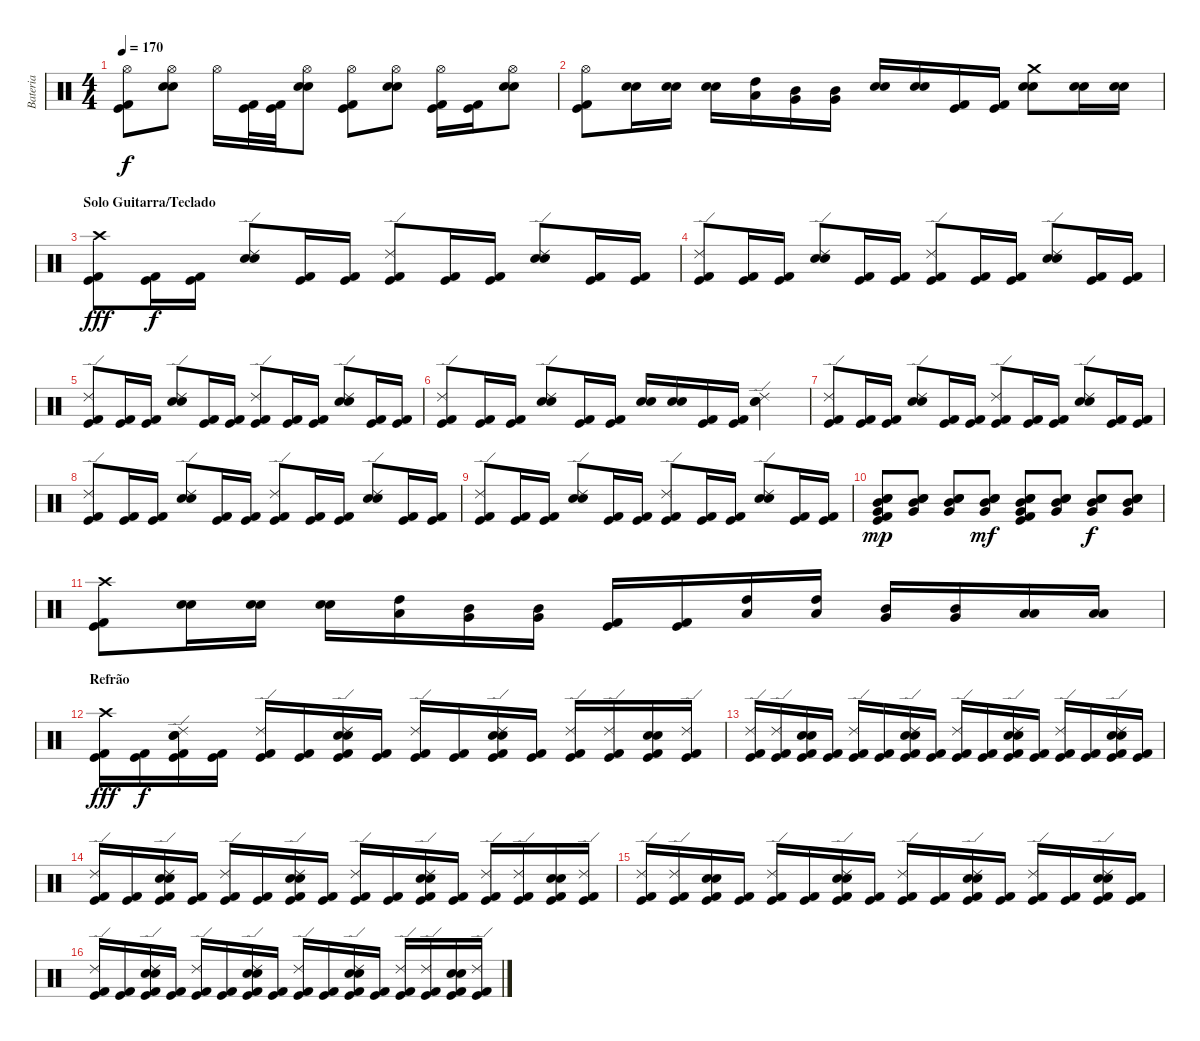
\track ("Bateria" "Bateria") {instrument percussion}
\staff {score}
\articulation defaults
\ts (4 4)
\tempo 170
\clef neutral
\ks c
("Hi-Hat (open)" "Kick (hit) 2" "Kick (hit)").8{dy f} ("Hi-Hat (open)" "Electric Snare (hit)" "Snare (hit) 2").8 "Hi-Hat (open)".16 ("Kick (hit) 2" "Kick (hit)").32 ("Kick (hit) 2" "Kick (hit)").32 ("Hi-Hat (open)" "Electric Snare (hit)" "Snare (hit) 2").8 ("Hi-Hat (open)" "Kick (hit) 2" "Kick (hit)").8 ("Hi-Hat (open)" "Electric Snare (hit)" "Snare (hit) 2").8 ("Hi-Hat (open)" "Kick (hit) 2" "Kick (hit)").16 ("Kick (hit) 2" "Kick (hit)").16 ("Hi-Hat (open)" "Electric Snare (hit)" "Snare (hit) 2").8 |
("Hi-Hat (open)" "Kick (hit) 2" "Kick (hit)").8 ("Electric Snare (hit)" "Snare (hit) 2").16 ("Electric Snare (hit)" "Snare (hit) 2").16 ("Electric Snare (hit)" "Snare (hit) 2").16 ("High Tom (hit)" "Low Tom (hit)").16 ("Mid Tom (hit)" "Very Low Tom (hit)").16 ("Mid Tom (hit)" "Very Low Tom (hit)").16 ("Electric Snare (hit)" "Snare (hit) 2").16 ("Electric Snare (hit)" "Snare (hit) 2").16 ("Kick (hit) 2" "Kick (hit)").16 ("Kick (hit) 2" "Kick (hit)").16 ("Crash medium (hit)" "Electric Snare (hit)" "Snare (hit) 2").8 ("Electric Snare (hit)" "Snare (hit) 2").16 ("Electric Snare (hit)" "Snare (hit) 2").16 |
\section ("" "Solo Guitarra/Teclado")
("Crash high (hit)" "Kick (hit) 2" "Kick (hit)").8{dy fff} ("Kick (hit) 2" "Kick (hit)").16{dy f} ("Kick (hit) 2" "Kick (hit)").16 ("Ride (edge) 2" "Electric Snare (hit)" "Snare (hit) 2").8 ("Kick (hit) 2" "Kick (hit)").16 ("Kick (hit) 2" "Kick (hit)").16 ("Ride (edge) 2" "Kick (hit) 2" "Kick (hit)").8 ("Kick (hit) 2" "Kick (hit)").16 ("Kick (hit) 2" "Kick (hit)").16 ("Ride (edge) 2" "Electric Snare (hit)" "Snare (hit) 2").8 ("Kick (hit) 2" "Kick (hit)").16 ("Kick (hit) 2" "Kick (hit)").16 |
("Ride (edge) 2" "Kick (hit) 2" "Kick (hit)").8 ("Kick (hit) 2" "Kick (hit)").16 ("Kick (hit) 2" "Kick (hit)").16 ("Ride (edge) 2" "Electric Snare (hit)" "Snare (hit) 2").8 ("Kick (hit) 2" "Kick (hit)").16 ("Kick (hit) 2" "Kick (hit)").16 ("Ride (edge) 2" "Kick (hit) 2" "Kick (hit)").8 ("Kick (hit) 2" "Kick (hit)").16 ("Kick (hit) 2" "Kick (hit)").16 ("Ride (edge) 2" "Electric Snare (hit)" "Snare (hit) 2").8 ("Kick (hit) 2" "Kick (hit)").16 ("Kick (hit) 2" "Kick (hit)").16 |
("Ride (edge) 2" "Kick (hit) 2" "Kick (hit)").8 ("Kick (hit) 2" "Kick (hit)").16 ("Kick (hit) 2" "Kick (hit)").16 ("Ride (edge) 2" "Electric Snare (hit)" "Snare (hit) 2").8 ("Kick (hit) 2" "Kick (hit)").16 ("Kick (hit) 2" "Kick (hit)").16 ("Ride (edge) 2" "Kick (hit) 2" "Kick (hit)").8 ("Kick (hit) 2" "Kick (hit)").16 ("Kick (hit) 2" "Kick (hit)").16 ("Ride (edge) 2" "Electric Snare (hit)" "Snare (hit) 2").8 ("Kick (hit) 2" "Kick (hit)").16 ("Kick (hit) 2" "Kick (hit)").16 |
("Ride (edge) 2" "Kick (hit) 2" "Kick (hit)").8 ("Kick (hit) 2" "Kick (hit)").16 ("Kick (hit) 2" "Kick (hit)").16 ("Ride (edge) 2" "Electric Snare (hit)" "Snare (hit) 2").8 ("Kick (hit) 2" "Kick (hit)").16 ("Kick (hit) 2" "Kick (hit)").16 ("Electric Snare (hit)" "Snare (hit) 2").16 ("Electric Snare (hit)" "Snare (hit) 2").16 ("Kick (hit) 2" "Kick (hit)").16 ("Kick (hit) 2" "Kick (hit)").16 ("Ride (edge) 2" "Electric Snare (hit)" "Snare (hit) 2").4 |
("Ride (edge) 2" "Kick (hit) 2" "Kick (hit)").8 ("Kick (hit) 2" "Kick (hit)").16 ("Kick (hit) 2" "Kick (hit)").16 ("Ride (edge) 2" "Electric Snare (hit)" "Snare (hit) 2").8 ("Kick (hit) 2" "Kick (hit)").16 ("Kick (hit) 2" "Kick (hit)").16 ("Ride (edge) 2" "Kick (hit) 2" "Kick (hit)").8 ("Kick (hit) 2" "Kick (hit)").16 ("Kick (hit) 2" "Kick (hit)").16 ("Ride (edge) 2" "Electric Snare (hit)" "Snare (hit) 2").8 ("Kick (hit) 2" "Kick (hit)").16 ("Kick (hit) 2" "Kick (hit)").16 |
("Ride (edge) 2" "Kick (hit) 2" "Kick (hit)").8 ("Kick (hit) 2" "Kick (hit)").16 ("Kick (hit) 2" "Kick (hit)").16 ("Ride (edge) 2" "Electric Snare (hit)" "Snare (hit) 2").8 ("Kick (hit) 2" "Kick (hit)").16 ("Kick (hit) 2" "Kick (hit)").16 ("Ride (edge) 2" "Kick (hit) 2" "Kick (hit)").8 ("Kick (hit) 2" "Kick (hit)").16 ("Kick (hit) 2" "Kick (hit)").16 ("Ride (edge) 2" "Electric Snare (hit)" "Snare (hit) 2").8 ("Kick (hit) 2" "Kick (hit)").16 ("Kick (hit) 2" "Kick (hit)").16 |
("Ride (edge) 2" "Kick (hit) 2" "Kick (hit)").8 ("Kick (hit) 2" "Kick (hit)").16 ("Kick (hit) 2" "Kick (hit)").16 ("Ride (edge) 2" "Electric Snare (hit)" "Snare (hit) 2").8 ("Kick (hit) 2" "Kick (hit)").16 ("Kick (hit) 2" "Kick (hit)").16 ("Ride (edge) 2" "Kick (hit) 2" "Kick (hit)").8 ("Kick (hit) 2" "Kick (hit)").16 ("Kick (hit) 2" "Kick (hit)").16 ("Ride (edge) 2" "Electric Snare (hit)" "Snare (hit) 2").8 ("Kick (hit) 2" "Kick (hit)").16 ("Kick (hit) 2" "Kick (hit)").16 |
("Mid Tom (hit)" "Very Low Tom (hit)" "Electric Snare (hit)" "Snare (hit) 2" "Kick (hit) 2" "Kick (hit)").8{dy mp} ("Mid Tom (hit)" "Very Low Tom (hit)" "Electric Snare (hit)" "Snare (hit) 2").8 ("Mid Tom (hit)" "Very Low Tom (hit)" "Electric Snare (hit)" "Snare (hit) 2").8 ("Mid Tom (hit)" "Very Low Tom (hit)" "Electric Snare (hit)" "Snare (hit) 2").8{dy mf} ("Mid Tom (hit)" "Very Low Tom (hit)" "Electric Snare (hit)" "Snare (hit) 2" "Kick (hit) 2" "Kick (hit)").8 ("Mid Tom (hit)" "Very Low Tom (hit)" "Electric Snare (hit)" "Snare (hit) 2").8 ("Mid Tom (hit)" "Very Low Tom (hit)" "Electric Snare (hit)" "Snare (hit) 2").8{dy f} ("Mid Tom (hit)" "Very Low Tom (hit)" "Electric Snare (hit)" "Snare (hit) 2").8 |
("Crash high (hit)" "Kick (hit) 2" "Kick (hit)").8 ("Electric Snare (hit)" "Snare (hit) 2").16 ("Electric Snare (hit)" "Snare (hit) 2").16 ("Electric Snare (hit)" "Snare (hit) 2").16 ("High Tom (hit)" "Low Tom (hit)").16 ("Mid Tom (hit)" "Very Low Tom (hit)").16 ("Mid Tom (hit)" "Very Low Tom (hit)").16 ("Kick (hit) 2" "Kick (hit)").16 ("Kick (hit) 2" "Kick (hit)").16 ("High Tom (hit)" "Low Tom (hit)").16 ("High Tom (hit)" "Low Tom (hit)").16 ("Mid Tom (hit)" "Very Low Tom (hit)").16 ("Mid Tom (hit)" "Very Low Tom (hit)").16 ("Low Tom (hit)" "Low Floor Tom (hit)").16 ("Low Tom (hit)" "Low Floor Tom (hit)").16 |
\section ("" "Refrão")
("Crash high (hit)" "Kick (hit) 2" "Kick (hit)").16{dy fff} ("Kick (hit) 2" "Kick (hit)").16{dy f} ("Ride (edge) 2" "Electric Snare (hit)" "Snare (hit) 2" "Kick (hit) 2" "Kick (hit)").16 ("Kick (hit) 2" "Kick (hit)").16 ("Ride (edge) 2" "Kick (hit) 2" "Kick (hit)").16 ("Kick (hit) 2" "Kick (hit)").16 ("Ride (edge) 2" "Electric Snare (hit)" "Snare (hit) 2" "Kick (hit) 2" "Kick (hit)").16 ("Kick (hit) 2" "Kick (hit)").16 ("Ride (edge) 2" "Kick (hit) 2" "Kick (hit)").16 ("Kick (hit) 2" "Kick (hit)").16 ("Ride (edge) 2" "Electric Snare (hit)" "Snare (hit) 2" "Kick (hit) 2" "Kick (hit)").16 ("Kick (hit) 2" "Kick (hit)").16 ("Ride (edge) 2" "Kick (hit) 2" "Kick (hit)").16 ("Ride (edge) 2" "Kick (hit) 2" "Kick (hit)").16 ("Electric Snare (hit)" "Snare (hit) 2" "Kick (hit) 2" "Kick (hit)").16 ("Ride (edge) 2" "Kick (hit) 2" "Kick (hit)").16 |
("Ride (edge) 2" "Kick (hit) 2" "Kick (hit)").16 ("Ride (edge) 2" "Kick (hit) 2" "Kick (hit)").16 ("Electric Snare (hit)" "Snare (hit) 2" "Kick (hit) 2" "Kick (hit)").16 ("Kick (hit) 2" "Kick (hit)").16 ("Ride (edge) 2" "Kick (hit) 2" "Kick (hit)").16 ("Kick (hit) 2" "Kick (hit)").16 ("Ride (edge) 2" "Electric Snare (hit)" "Snare (hit) 2" "Kick (hit) 2" "Kick (hit)").16 ("Kick (hit) 2" "Kick (hit)").16 ("Ride (edge) 2" "Kick (hit) 2" "Kick (hit)").16 ("Kick (hit) 2" "Kick (hit)").16 ("Ride (edge) 2" "Electric Snare (hit)" "Snare (hit) 2" "Kick (hit) 2" "Kick (hit)").16 ("Kick (hit) 2" "Kick (hit)").16 ("Ride (edge) 2" "Kick (hit) 2" "Kick (hit)").16 ("Kick (hit) 2" "Kick (hit)").16 ("Ride (edge) 2" "Electric Snare (hit)" "Snare (hit) 2" "Kick (hit) 2" "Kick (hit)").16 ("Kick (hit) 2" "Kick (hit)").16 |
("Ride (edge) 2" "Kick (hit) 2" "Kick (hit)").16 ("Kick (hit) 2" "Kick (hit)").16 ("Ride (edge) 2" "Electric Snare (hit)" "Snare (hit) 2" "Kick (hit) 2" "Kick (hit)").16 ("Kick (hit) 2" "Kick (hit)").16 ("Ride (edge) 2" "Kick (hit) 2" "Kick (hit)").16 ("Kick (hit) 2" "Kick (hit)").16 ("Ride (edge) 2" "Electric Snare (hit)" "Snare (hit) 2" "Kick (hit) 2" "Kick (hit)").16 ("Kick (hit) 2" "Kick (hit)").16 ("Ride (edge) 2" "Kick (hit) 2" "Kick (hit)").16 ("Kick (hit) 2" "Kick (hit)").16 ("Ride (edge) 2" "Electric Snare (hit)" "Snare (hit) 2" "Kick (hit) 2" "Kick (hit)").16 ("Kick (hit) 2" "Kick (hit)").16 ("Ride (edge) 2" "Kick (hit) 2" "Kick (hit)").16 ("Ride (edge) 2" "Kick (hit) 2" "Kick (hit)").16 ("Electric Snare (hit)" "Snare (hit) 2" "Kick (hit) 2" "Kick (hit)").16 ("Ride (edge) 2" "Kick (hit) 2" "Kick (hit)").16 |
("Ride (edge) 2" "Kick (hit) 2" "Kick (hit)").16 ("Ride (edge) 2" "Kick (hit) 2" "Kick (hit)").16 ("Electric Snare (hit)" "Snare (hit) 2" "Kick (hit) 2" "Kick (hit)").16 ("Kick (hit) 2" "Kick (hit)").16 ("Ride (edge) 2" "Kick (hit) 2" "Kick (hit)").16 ("Kick (hit) 2" "Kick (hit)").16 ("Ride (edge) 2" "Electric Snare (hit)" "Snare (hit) 2" "Kick (hit) 2" "Kick (hit)").16 ("Kick (hit) 2" "Kick (hit)").16 ("Ride (edge) 2" "Kick (hit) 2" "Kick (hit)").16 ("Kick (hit) 2" "Kick (hit)").16 ("Ride (edge) 2" "Electric Snare (hit)" "Snare (hit) 2" "Kick (hit) 2" "Kick (hit)").16 ("Kick (hit) 2" "Kick (hit)").16 ("Ride (edge) 2" "Kick (hit) 2" "Kick (hit)").16 ("Kick (hit) 2" "Kick (hit)").16 ("Ride (edge) 2" "Electric Snare (hit)" "Snare (hit) 2" "Kick (hit) 2" "Kick (hit)").16 ("Kick (hit) 2" "Kick (hit)").16 |
("Ride (edge) 2" "Kick (hit) 2" "Kick (hit)").16 ("Kick (hit) 2" "Kick (hit)").16 ("Ride (edge) 2" "Electric Snare (hit)" "Snare (hit) 2" "Kick (hit) 2" "Kick (hit)").16 ("Kick (hit) 2" "Kick (hit)").16 ("Ride (edge) 2" "Kick (hit) 2" "Kick (hit)").16 ("Kick (hit) 2" "Kick (hit)").16 ("Ride (edge) 2" "Electric Snare (hit)" "Snare (hit) 2" "Kick (hit) 2" "Kick (hit)").16 ("Kick (hit) 2" "Kick (hit)").16 ("Ride (edge) 2" "Kick (hit) 2" "Kick (hit)").16 ("Kick (hit) 2" "Kick (hit)").16 ("Ride (edge) 2" "Electric Snare (hit)" "Snare (hit) 2" "Kick (hit) 2" "Kick (hit)").16 ("Kick (hit) 2" "Kick (hit)").16 ("Ride (edge) 2" "Kick (hit) 2" "Kick (hit)").16 ("Ride (edge) 2" "Kick (hit) 2" "Kick (hit)").16 ("Electric Snare (hit)" "Snare (hit) 2" "Kick (hit) 2" "Kick (hit)").16 ("Ride (edge) 2" "Kick (hit) 2" "Kick (hit)").16
